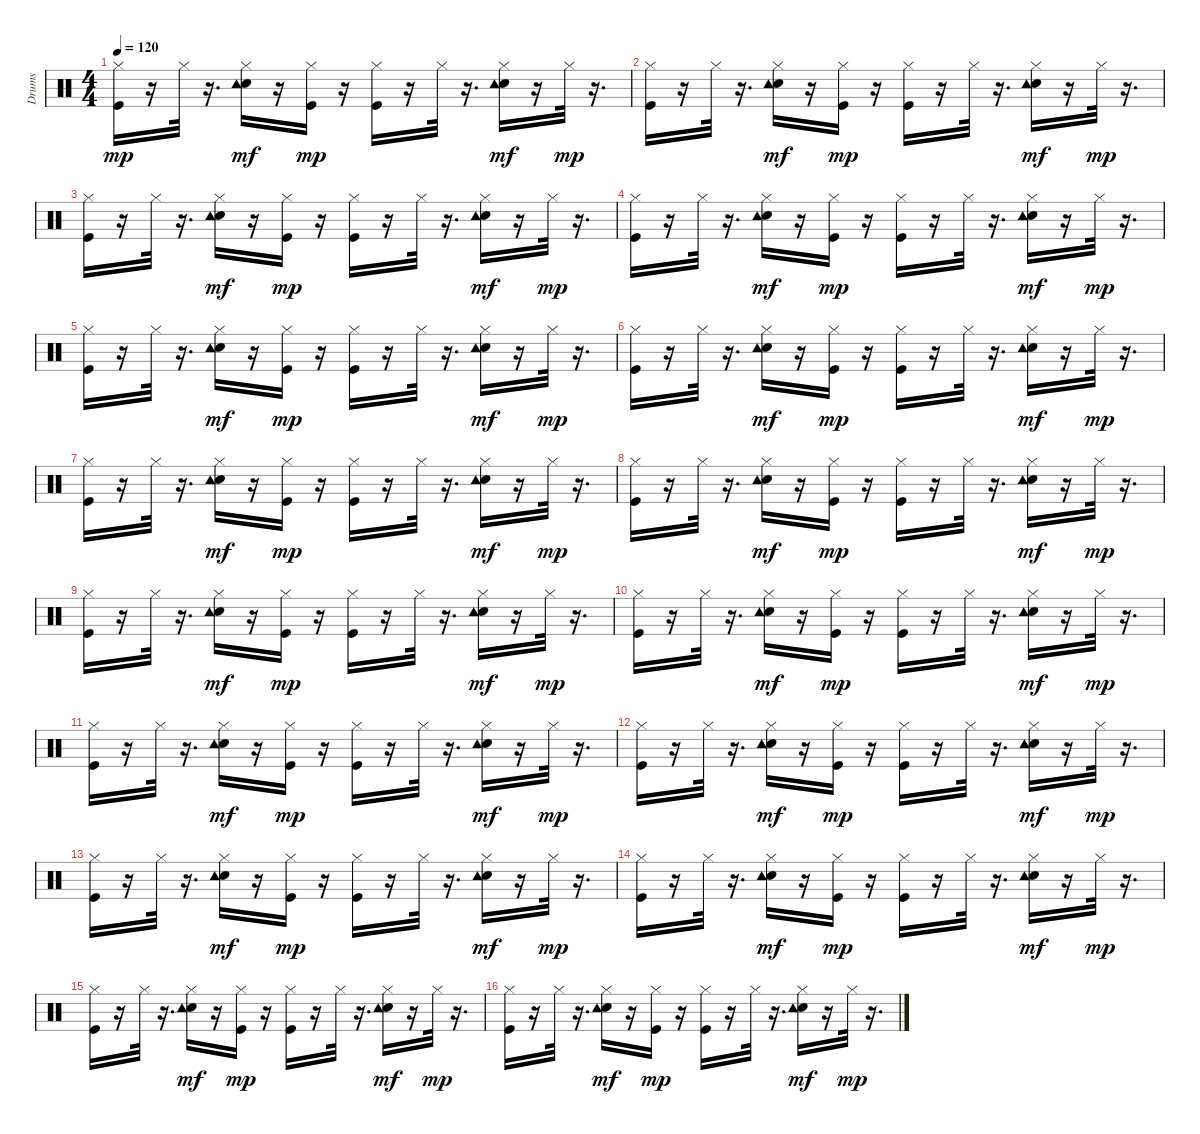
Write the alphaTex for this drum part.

\track ("Drums" "Drums") {instrument percussion}
\staff {score}
\articulation defaults
\ts (4 4)
\tempo 120
\clef neutral
\ks c
("Kick (hit)" "Hi-Hat (closed)").16{dy mp} r.16 "Hi-Hat (closed)".32 r.16{d} ("Electric Snare (hit)" "Hi-Hat (closed)" "Tambourine (hit)").16{dy mf} r.16 ("Kick (hit)" "Hi-Hat (closed)").16{dy mp} r.16 ("Kick (hit)" "Hi-Hat (closed)").16 r.16 "Hi-Hat (closed)".32 r.16{d} ("Electric Snare (hit)" "Hi-Hat (closed)" "Tambourine (hit)").16{dy mf} r.16 "Hi-Hat (closed)".32{dy mp} r.16{d} |
("Kick (hit)" "Hi-Hat (closed)").16 r.16 "Hi-Hat (closed)".32 r.16{d} ("Electric Snare (hit)" "Hi-Hat (closed)" "Tambourine (hit)").16{dy mf} r.16 ("Kick (hit)" "Hi-Hat (closed)").16{dy mp} r.16 ("Kick (hit)" "Hi-Hat (closed)").16 r.16 "Hi-Hat (closed)".32 r.16{d} ("Electric Snare (hit)" "Hi-Hat (closed)" "Tambourine (hit)").16{dy mf} r.16 "Hi-Hat (closed)".32{dy mp} r.16{d} |
("Kick (hit)" "Hi-Hat (closed)").16 r.16 "Hi-Hat (closed)".32 r.16{d} ("Electric Snare (hit)" "Hi-Hat (closed)" "Tambourine (hit)").16{dy mf} r.16 ("Kick (hit)" "Hi-Hat (closed)").16{dy mp} r.16 ("Kick (hit)" "Hi-Hat (closed)").16 r.16 "Hi-Hat (closed)".32 r.16{d} ("Electric Snare (hit)" "Hi-Hat (closed)" "Tambourine (hit)").16{dy mf} r.16 "Hi-Hat (closed)".32{dy mp} r.16{d} |
("Kick (hit)" "Hi-Hat (closed)").16 r.16 "Hi-Hat (closed)".32 r.16{d} ("Electric Snare (hit)" "Hi-Hat (closed)" "Tambourine (hit)").16{dy mf} r.16 ("Kick (hit)" "Hi-Hat (closed)").16{dy mp} r.16 ("Kick (hit)" "Hi-Hat (closed)").16 r.16 "Hi-Hat (closed)".32 r.16{d} ("Electric Snare (hit)" "Hi-Hat (closed)" "Tambourine (hit)").16{dy mf} r.16 "Hi-Hat (closed)".32{dy mp} r.16{d} |
("Kick (hit)" "Hi-Hat (closed)").16 r.16 "Hi-Hat (closed)".32 r.16{d} ("Electric Snare (hit)" "Hi-Hat (closed)" "Tambourine (hit)").16{dy mf} r.16 ("Kick (hit)" "Hi-Hat (closed)").16{dy mp} r.16 ("Kick (hit)" "Hi-Hat (closed)").16 r.16 "Hi-Hat (closed)".32 r.16{d} ("Electric Snare (hit)" "Hi-Hat (closed)" "Tambourine (hit)").16{dy mf} r.16 "Hi-Hat (closed)".32{dy mp} r.16{d} |
("Kick (hit)" "Hi-Hat (closed)").16 r.16 "Hi-Hat (closed)".32 r.16{d} ("Electric Snare (hit)" "Hi-Hat (closed)" "Tambourine (hit)").16{dy mf} r.16 ("Kick (hit)" "Hi-Hat (closed)").16{dy mp} r.16 ("Kick (hit)" "Hi-Hat (closed)").16 r.16 "Hi-Hat (closed)".32 r.16{d} ("Electric Snare (hit)" "Hi-Hat (closed)" "Tambourine (hit)").16{dy mf} r.16 "Hi-Hat (closed)".32{dy mp} r.16{d} |
("Kick (hit)" "Hi-Hat (closed)").16 r.16 "Hi-Hat (closed)".32 r.16{d} ("Electric Snare (hit)" "Hi-Hat (closed)" "Tambourine (hit)").16{dy mf} r.16 ("Kick (hit)" "Hi-Hat (closed)").16{dy mp} r.16 ("Kick (hit)" "Hi-Hat (closed)").16 r.16 "Hi-Hat (closed)".32 r.16{d} ("Electric Snare (hit)" "Hi-Hat (closed)" "Tambourine (hit)").16{dy mf} r.16 "Hi-Hat (closed)".32{dy mp} r.16{d} |
("Kick (hit)" "Hi-Hat (closed)").16 r.16 "Hi-Hat (closed)".32 r.16{d} ("Electric Snare (hit)" "Hi-Hat (closed)" "Tambourine (hit)").16{dy mf} r.16 ("Kick (hit)" "Hi-Hat (closed)").16{dy mp} r.16 ("Kick (hit)" "Hi-Hat (closed)").16 r.16 "Hi-Hat (closed)".32 r.16{d} ("Electric Snare (hit)" "Hi-Hat (closed)" "Tambourine (hit)").16{dy mf} r.16 "Hi-Hat (closed)".32{dy mp} r.16{d} |
("Kick (hit)" "Hi-Hat (closed)").16 r.16 "Hi-Hat (closed)".32 r.16{d} ("Electric Snare (hit)" "Hi-Hat (closed)" "Tambourine (hit)").16{dy mf} r.16 ("Kick (hit)" "Hi-Hat (closed)").16{dy mp} r.16 ("Kick (hit)" "Hi-Hat (closed)").16 r.16 "Hi-Hat (closed)".32 r.16{d} ("Electric Snare (hit)" "Hi-Hat (closed)" "Tambourine (hit)").16{dy mf} r.16 "Hi-Hat (closed)".32{dy mp} r.16{d} |
("Kick (hit)" "Hi-Hat (closed)").16 r.16 "Hi-Hat (closed)".32 r.16{d} ("Electric Snare (hit)" "Hi-Hat (closed)" "Tambourine (hit)").16{dy mf} r.16 ("Kick (hit)" "Hi-Hat (closed)").16{dy mp} r.16 ("Kick (hit)" "Hi-Hat (closed)").16 r.16 "Hi-Hat (closed)".32 r.16{d} ("Electric Snare (hit)" "Hi-Hat (closed)" "Tambourine (hit)").16{dy mf} r.16 "Hi-Hat (closed)".32{dy mp} r.16{d} |
("Kick (hit)" "Hi-Hat (closed)").16 r.16 "Hi-Hat (closed)".32 r.16{d} ("Electric Snare (hit)" "Hi-Hat (closed)" "Tambourine (hit)").16{dy mf} r.16 ("Kick (hit)" "Hi-Hat (closed)").16{dy mp} r.16 ("Kick (hit)" "Hi-Hat (closed)").16 r.16 "Hi-Hat (closed)".32 r.16{d} ("Electric Snare (hit)" "Hi-Hat (closed)" "Tambourine (hit)").16{dy mf} r.16 "Hi-Hat (closed)".32{dy mp} r.16{d} |
("Kick (hit)" "Hi-Hat (closed)").16 r.16 "Hi-Hat (closed)".32 r.16{d} ("Electric Snare (hit)" "Hi-Hat (closed)" "Tambourine (hit)").16{dy mf} r.16 ("Kick (hit)" "Hi-Hat (closed)").16{dy mp} r.16 ("Kick (hit)" "Hi-Hat (closed)").16 r.16 "Hi-Hat (closed)".32 r.16{d} ("Electric Snare (hit)" "Hi-Hat (closed)" "Tambourine (hit)").16{dy mf} r.16 "Hi-Hat (closed)".32{dy mp} r.16{d} |
("Kick (hit)" "Hi-Hat (closed)").16 r.16 "Hi-Hat (closed)".32 r.16{d} ("Electric Snare (hit)" "Hi-Hat (closed)" "Tambourine (hit)").16{dy mf} r.16 ("Kick (hit)" "Hi-Hat (closed)").16{dy mp} r.16 ("Kick (hit)" "Hi-Hat (closed)").16 r.16 "Hi-Hat (closed)".32 r.16{d} ("Electric Snare (hit)" "Hi-Hat (closed)" "Tambourine (hit)").16{dy mf} r.16 "Hi-Hat (closed)".32{dy mp} r.16{d} |
("Kick (hit)" "Hi-Hat (closed)").16 r.16 "Hi-Hat (closed)".32 r.16{d} ("Electric Snare (hit)" "Hi-Hat (closed)" "Tambourine (hit)").16{dy mf} r.16 ("Kick (hit)" "Hi-Hat (closed)").16{dy mp} r.16 ("Kick (hit)" "Hi-Hat (closed)").16 r.16 "Hi-Hat (closed)".32 r.16{d} ("Electric Snare (hit)" "Hi-Hat (closed)" "Tambourine (hit)").16{dy mf} r.16 "Hi-Hat (closed)".32{dy mp} r.16{d} |
("Kick (hit)" "Hi-Hat (closed)").16 r.16 "Hi-Hat (closed)".32 r.16{d} ("Electric Snare (hit)" "Hi-Hat (closed)" "Tambourine (hit)").16{dy mf} r.16 ("Kick (hit)" "Hi-Hat (closed)").16{dy mp} r.16 ("Kick (hit)" "Hi-Hat (closed)").16 r.16 "Hi-Hat (closed)".32 r.16{d} ("Electric Snare (hit)" "Hi-Hat (closed)" "Tambourine (hit)").16{dy mf} r.16 "Hi-Hat (closed)".32{dy mp} r.16{d} |
("Kick (hit)" "Hi-Hat (closed)").16 r.16 "Hi-Hat (closed)".32 r.16{d} ("Electric Snare (hit)" "Hi-Hat (closed)" "Tambourine (hit)").16{dy mf} r.16 ("Kick (hit)" "Hi-Hat (closed)").16{dy mp} r.16 ("Kick (hit)" "Hi-Hat (closed)").16 r.16 "Hi-Hat (closed)".32 r.16{d} ("Electric Snare (hit)" "Hi-Hat (closed)" "Tambourine (hit)").16{dy mf} r.16 "Hi-Hat (closed)".32{dy mp} r.16{d}
